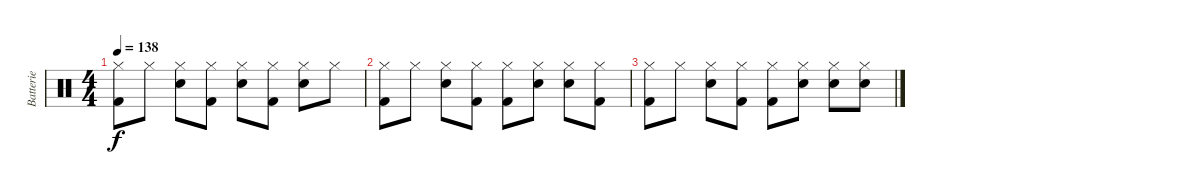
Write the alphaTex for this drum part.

\track ("Batterie" "Batterie") {instrument percussion}
\staff {score}
\articulation defaults
\ts (4 4)
\tempo 138
\clef neutral
\ks c
("Hi-Hat (closed)" "Kick (hit) 2").8{dy f} "Hi-Hat (closed)".8 ("Hi-Hat (closed)" "Electric Snare (hit)").8 ("Hi-Hat (closed)" "Kick (hit) 2").8 ("Hi-Hat (closed)" "Electric Snare (hit)").8 ("Hi-Hat (closed)" "Kick (hit) 2").8 ("Hi-Hat (closed)" "Electric Snare (hit)").8 "Hi-Hat (closed)".8 |
("Hi-Hat (closed)" "Kick (hit) 2").8 "Hi-Hat (closed)".8 ("Hi-Hat (closed)" "Electric Snare (hit)").8 ("Hi-Hat (closed)" "Kick (hit) 2").8 ("Hi-Hat (closed)" "Kick (hit) 2").8 ("Hi-Hat (closed)" "Electric Snare (hit)").8 ("Hi-Hat (closed)" "Electric Snare (hit)").8 ("Hi-Hat (closed)" "Kick (hit) 2").8 |
("Hi-Hat (closed)" "Kick (hit) 2").8 "Hi-Hat (closed)".8 ("Hi-Hat (closed)" "Electric Snare (hit)").8 ("Hi-Hat (closed)" "Kick (hit) 2").8 ("Hi-Hat (closed)" "Kick (hit) 2").8 ("Hi-Hat (closed)" "Electric Snare (hit)").8 ("Hi-Hat (closed)" "Electric Snare (hit)").8 ("Hi-Hat (closed)" "Electric Snare (hit)").8
